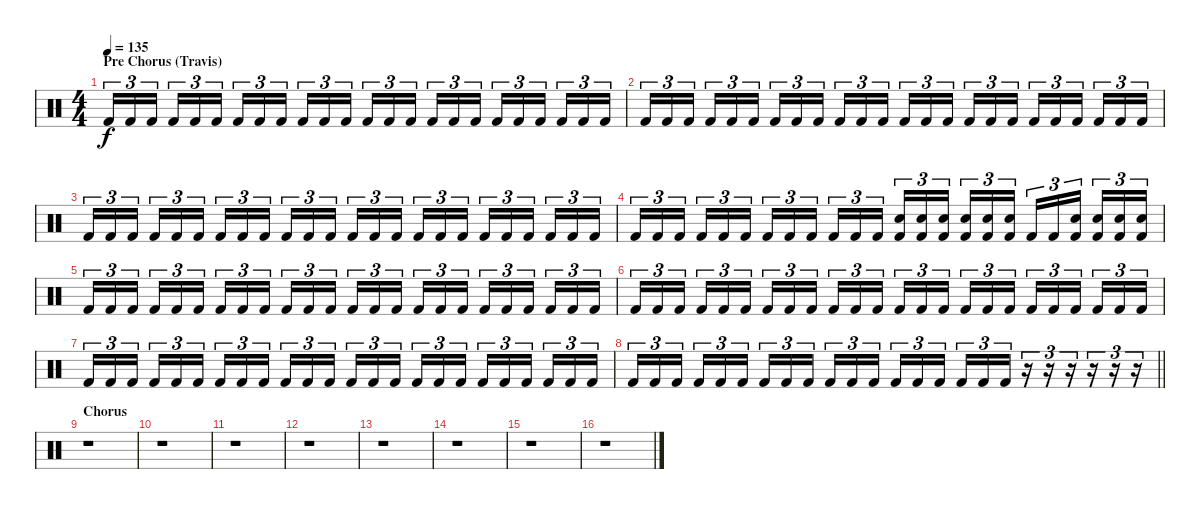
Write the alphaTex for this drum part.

\track "" {instrument percussion}
\staff {score}
\articulation defaults
\ts (4 4)
\section ("" "Pre Chorus (Travis)")
\tempo 135
\clef neutral
\ks c "Kick (hit) 2".16{tu (3 2) dy f} "Kick (hit) 2".16{tu (3 2)} "Kick (hit) 2".16{tu (3 2) beam splitsecondary} "Kick (hit) 2".16{tu (3 2)} "Kick (hit) 2".16{tu (3 2)} "Kick (hit) 2".16{tu (3 2)} "Kick (hit) 2".16{tu (3 2)} "Kick (hit) 2".16{tu (3 2)} "Kick (hit) 2".16{tu (3 2) beam splitsecondary} "Kick (hit) 2".16{tu (3 2)} "Kick (hit) 2".16{tu (3 2)} "Kick (hit) 2".16{tu (3 2)} "Kick (hit) 2".16{tu (3 2)} "Kick (hit) 2".16{tu (3 2)} "Kick (hit) 2".16{tu (3 2) beam splitsecondary} "Kick (hit) 2".16{tu (3 2)} "Kick (hit) 2".16{tu (3 2)} "Kick (hit) 2".16{tu (3 2)} "Kick (hit) 2".16{tu (3 2)} "Kick (hit) 2".16{tu (3 2)} "Kick (hit) 2".16{tu (3 2) beam splitsecondary} "Kick (hit) 2".16{tu (3 2)} "Kick (hit) 2".16{tu (3 2)} "Kick (hit) 2".16{tu (3 2)}
|
"Kick (hit) 2".16{tu (3 2)} "Kick (hit) 2".16{tu (3 2)} "Kick (hit) 2".16{tu (3 2) beam splitsecondary} "Kick (hit) 2".16{tu (3 2)} "Kick (hit) 2".16{tu (3 2)} "Kick (hit) 2".16{tu (3 2)} "Kick (hit) 2".16{tu (3 2)} "Kick (hit) 2".16{tu (3 2)} "Kick (hit) 2".16{tu (3 2) beam splitsecondary} "Kick (hit) 2".16{tu (3 2)} "Kick (hit) 2".16{tu (3 2)} "Kick (hit) 2".16{tu (3 2)} "Kick (hit) 2".16{tu (3 2)} "Kick (hit) 2".16{tu (3 2)} "Kick (hit) 2".16{tu (3 2) beam splitsecondary} "Kick (hit) 2".16{tu (3 2)} "Kick (hit) 2".16{tu (3 2)} "Kick (hit) 2".16{tu (3 2)} "Kick (hit) 2".16{tu (3 2)} "Kick (hit) 2".16{tu (3 2)} "Kick (hit) 2".16{tu (3 2) beam splitsecondary} "Kick (hit) 2".16{tu (3 2)} "Kick (hit) 2".16{tu (3 2)} "Kick (hit) 2".16{tu (3 2)} |
"Kick (hit) 2".16{tu (3 2)} "Kick (hit) 2".16{tu (3 2)} "Kick (hit) 2".16{tu (3 2) beam splitsecondary} "Kick (hit) 2".16{tu (3 2)} "Kick (hit) 2".16{tu (3 2)} "Kick (hit) 2".16{tu (3 2)} "Kick (hit) 2".16{tu (3 2)} "Kick (hit) 2".16{tu (3 2)} "Kick (hit) 2".16{tu (3 2) beam splitsecondary} "Kick (hit) 2".16{tu (3 2)} "Kick (hit) 2".16{tu (3 2)} "Kick (hit) 2".16{tu (3 2)} "Kick (hit) 2".16{tu (3 2)} "Kick (hit) 2".16{tu (3 2)} "Kick (hit) 2".16{tu (3 2) beam splitsecondary} "Kick (hit) 2".16{tu (3 2)} "Kick (hit) 2".16{tu (3 2)} "Kick (hit) 2".16{tu (3 2)} "Kick (hit) 2".16{tu (3 2)} "Kick (hit) 2".16{tu (3 2)} "Kick (hit) 2".16{tu (3 2) beam splitsecondary} "Kick (hit) 2".16{tu (3 2)} "Kick (hit) 2".16{tu (3 2)} "Kick (hit) 2".16{tu (3 2)} |
"Kick (hit) 2".16{tu (3 2)} "Kick (hit) 2".16{tu (3 2)} "Kick (hit) 2".16{tu (3 2) beam splitsecondary} "Kick (hit) 2".16{tu (3 2)} "Kick (hit) 2".16{tu (3 2)} "Kick (hit) 2".16{tu (3 2)} "Kick (hit) 2".16{tu (3 2)} "Kick (hit) 2".16{tu (3 2)} "Kick (hit) 2".16{tu (3 2) beam splitsecondary} "Kick (hit) 2".16{tu (3 2)} "Kick (hit) 2".16{tu (3 2)} "Kick (hit) 2".16{tu (3 2)} ("Snare (hit) 2" "Kick (hit) 2").16{tu (3 2)} ("Snare (hit) 2" "Kick (hit) 2").16{tu (3 2)} ("Snare (hit) 2" "Kick (hit) 2").16{tu (3 2) beam splitsecondary} ("Snare (hit) 2" "Kick (hit) 2").16{tu (3 2)} ("Snare (hit) 2" "Kick (hit) 2").16{tu (3 2)} ("Snare (hit) 2" "Kick (hit) 2").16{tu (3 2)} "Kick (hit) 2".16{tu (3 2)} "Kick (hit) 2".16{tu (3 2)} ("Snare (hit) 2" "Kick (hit) 2").16{tu (3 2) beam splitsecondary} ("Snare (hit) 2" "Kick (hit) 2").16{tu (3 2)} ("Snare (hit) 2" "Kick (hit) 2").16{tu (3 2)} ("Snare (hit) 2" "Kick (hit) 2").16{tu (3 2)} |
"Kick (hit) 2".16{tu (3 2)} "Kick (hit) 2".16{tu (3 2)} "Kick (hit) 2".16{tu (3 2) beam splitsecondary} "Kick (hit) 2".16{tu (3 2)} "Kick (hit) 2".16{tu (3 2)} "Kick (hit) 2".16{tu (3 2)} "Kick (hit) 2".16{tu (3 2)} "Kick (hit) 2".16{tu (3 2)} "Kick (hit) 2".16{tu (3 2) beam splitsecondary} "Kick (hit) 2".16{tu (3 2)} "Kick (hit) 2".16{tu (3 2)} "Kick (hit) 2".16{tu (3 2)} "Kick (hit) 2".16{tu (3 2)} "Kick (hit) 2".16{tu (3 2)} "Kick (hit) 2".16{tu (3 2) beam splitsecondary} "Kick (hit) 2".16{tu (3 2)} "Kick (hit) 2".16{tu (3 2)} "Kick (hit) 2".16{tu (3 2)} "Kick (hit) 2".16{tu (3 2)} "Kick (hit) 2".16{tu (3 2)} "Kick (hit) 2".16{tu (3 2) beam splitsecondary} "Kick (hit) 2".16{tu (3 2)} "Kick (hit) 2".16{tu (3 2)} "Kick (hit) 2".16{tu (3 2)} |
"Kick (hit) 2".16{tu (3 2)} "Kick (hit) 2".16{tu (3 2)} "Kick (hit) 2".16{tu (3 2) beam splitsecondary} "Kick (hit) 2".16{tu (3 2)} "Kick (hit) 2".16{tu (3 2)} "Kick (hit) 2".16{tu (3 2)} "Kick (hit) 2".16{tu (3 2)} "Kick (hit) 2".16{tu (3 2)} "Kick (hit) 2".16{tu (3 2) beam splitsecondary} "Kick (hit) 2".16{tu (3 2)} "Kick (hit) 2".16{tu (3 2)} "Kick (hit) 2".16{tu (3 2)} "Kick (hit) 2".16{tu (3 2)} "Kick (hit) 2".16{tu (3 2)} "Kick (hit) 2".16{tu (3 2) beam splitsecondary} "Kick (hit) 2".16{tu (3 2)} "Kick (hit) 2".16{tu (3 2)} "Kick (hit) 2".16{tu (3 2)} "Kick (hit) 2".16{tu (3 2)} "Kick (hit) 2".16{tu (3 2)} "Kick (hit) 2".16{tu (3 2) beam splitsecondary} "Kick (hit) 2".16{tu (3 2)} "Kick (hit) 2".16{tu (3 2)} "Kick (hit) 2".16{tu (3 2)} |
"Kick (hit) 2".16{tu (3 2)} "Kick (hit) 2".16{tu (3 2)} "Kick (hit) 2".16{tu (3 2) beam splitsecondary} "Kick (hit) 2".16{tu (3 2)} "Kick (hit) 2".16{tu (3 2)} "Kick (hit) 2".16{tu (3 2)} "Kick (hit) 2".16{tu (3 2)} "Kick (hit) 2".16{tu (3 2)} "Kick (hit) 2".16{tu (3 2) beam splitsecondary} "Kick (hit) 2".16{tu (3 2)} "Kick (hit) 2".16{tu (3 2)} "Kick (hit) 2".16{tu (3 2)} "Kick (hit) 2".16{tu (3 2)} "Kick (hit) 2".16{tu (3 2)} "Kick (hit) 2".16{tu (3 2) beam splitsecondary} "Kick (hit) 2".16{tu (3 2)} "Kick (hit) 2".16{tu (3 2)} "Kick (hit) 2".16{tu (3 2)} "Kick (hit) 2".16{tu (3 2)} "Kick (hit) 2".16{tu (3 2)} "Kick (hit) 2".16{tu (3 2) beam splitsecondary} "Kick (hit) 2".16{tu (3 2)} "Kick (hit) 2".16{tu (3 2)} "Kick (hit) 2".16{tu (3 2)} |
\barLineRight lightlight "Kick (hit) 2".16{tu (3 2)} "Kick (hit) 2".16{tu (3 2)} "Kick (hit) 2".16{tu (3 2) beam splitsecondary} "Kick (hit) 2".16{tu (3 2)} "Kick (hit) 2".16{tu (3 2)} "Kick (hit) 2".16{tu (3 2)} "Kick (hit) 2".16{tu (3 2)} "Kick (hit) 2".16{tu (3 2)} "Kick (hit) 2".16{tu (3 2) beam splitsecondary} "Kick (hit) 2".16{tu (3 2)} "Kick (hit) 2".16{tu (3 2)} "Kick (hit) 2".16{tu (3 2)} "Kick (hit) 2".16{tu (3 2)} "Kick (hit) 2".16{tu (3 2)} "Kick (hit) 2".16{tu (3 2) beam splitsecondary} "Kick (hit) 2".16{tu (3 2)} "Kick (hit) 2".16{tu (3 2)} "Kick (hit) 2".16{tu (3 2)}
r.16{tu (3 2)} r.16{tu (3 2)} r.16{tu (3 2)} r.16{tu (3 2)} r.16{tu (3 2)} r.16{tu (3 2)} |
\section ("" "Chorus")
r.1 |
r.1 |
r.1 |
r.1 |
r.1 |
r.1 |
r.1 |
r.1
